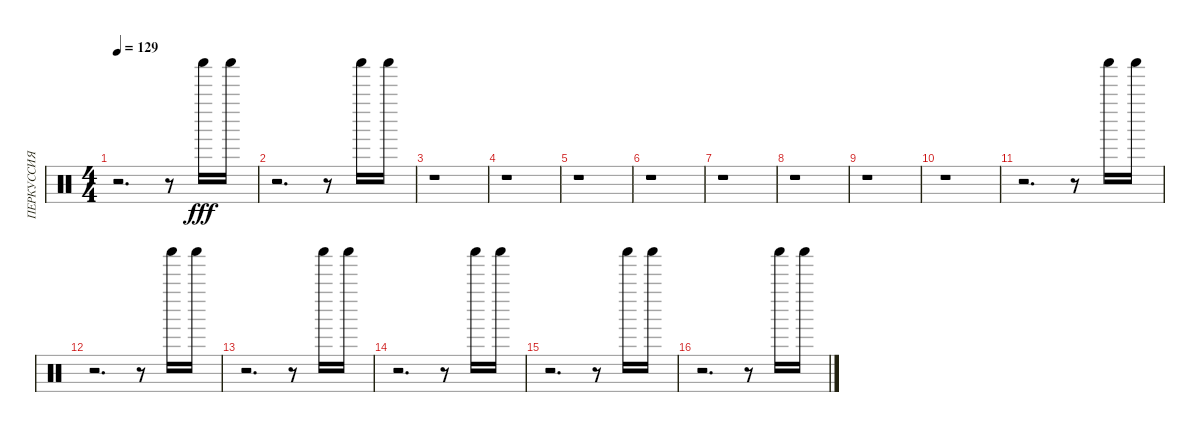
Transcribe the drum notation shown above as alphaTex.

\track ("ПЕРКУССИЯ 2" "ПЕРКУССИЯ ") {instrument percussion}
\staff {score}
\articulation defaults
\ts (4 4)
\tempo 129
\clef neutral
\ks c
r.2{d dy fff} r.8 "Shaker (hit)".16 "Shaker (hit)".16 |
r.2{d} r.8 "Shaker (hit)".16 "Shaker (hit)".16 |
r.1 |
r.1 |
r.1 |
r.1 |
r.1 |
r.1 |
r.1 |
r.1 |
r.2{d} r.8 "Shaker (hit)".16 "Shaker (hit)".16 |
r.2{d} r.8 "Shaker (hit)".16 "Shaker (hit)".16 |
r.2{d} r.8 "Shaker (hit)".16 "Shaker (hit)".16 |
r.2{d} r.8 "Shaker (hit)".16 "Shaker (hit)".16 |
r.2{d} r.8 "Shaker (hit)".16 "Shaker (hit)".16 |
r.2{d} r.8 "Shaker (hit)".16 "Shaker (hit)".16
